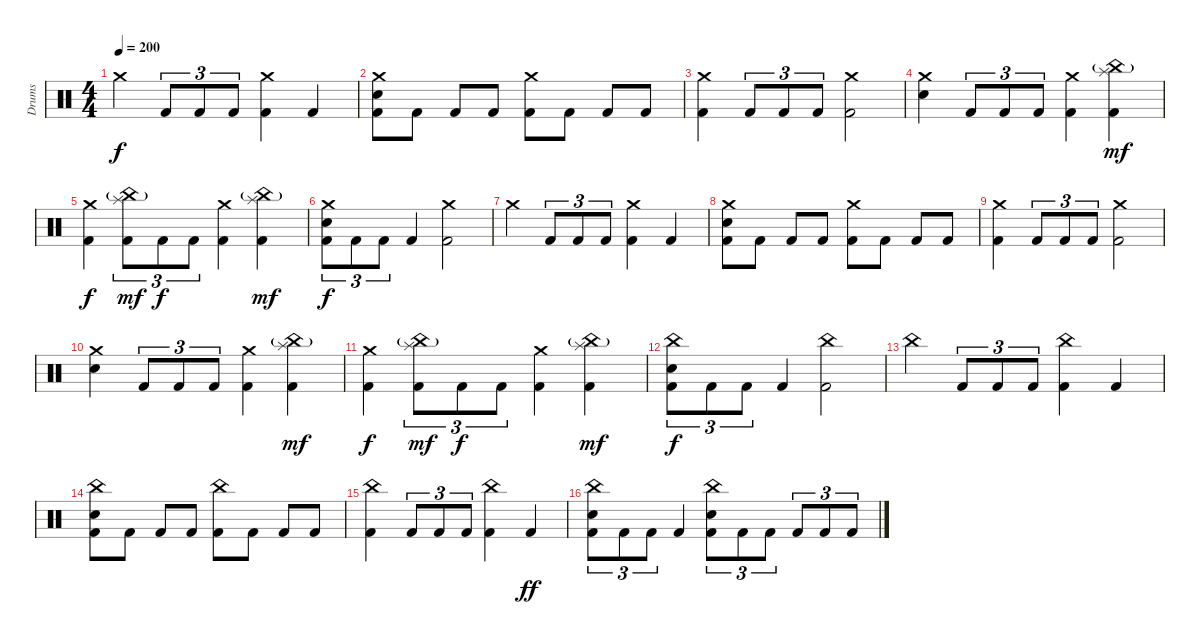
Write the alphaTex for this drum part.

\track ("Drums" "Drums") {instrument percussion}
\staff {score}
\articulation defaults
\ts (4 4)
\tempo 200
\clef neutral
\ks c "Crash medium (hit)".4{dy f} "Kick (hit) 2".8{tu (3 2)} "Kick (hit) 2".8{tu (3 2)} "Kick (hit) 2".8{tu (3 2)}
("Crash medium (hit)" "Kick (hit) 2").4 "Kick (hit) 2".4 |
("Crash medium (hit)" "Kick (hit) 2" "Electric Snare (hit)").8 "Kick (hit) 2".8 "Kick (hit) 2".8 "Kick (hit) 2".8 ("Crash medium (hit)" "Kick (hit) 2").8 "Kick (hit) 2".8 "Kick (hit) 2".8 "Kick (hit) 2".8 |
("Crash medium (hit)" "Kick (hit) 2").4 "Kick (hit) 2".8{tu (3 2)} "Kick (hit) 2".8{tu (3 2)} "Kick (hit) 2".8{tu (3 2)} ("Crash medium (hit)" "Kick (hit) 2").2 |
("Crash medium (hit)" "Electric Snare (hit)").4 "Kick (hit) 2".8{tu (3 2)} "Kick (hit) 2".8{tu (3 2)} "Kick (hit) 2".8{tu (3 2)} ("Crash medium (hit)" "Kick (hit) 2").4 ("Splash (hit)" "China (hit)"{g} "Kick (hit) 2").4{dy mf} |
("Crash medium (hit)" "Kick (hit) 2").4{dy f} ("Splash (hit)" "China (hit)"{g} "Kick (hit) 2").8{tu (3 2) dy mf} "Kick (hit) 2".8{tu (3 2) dy f} "Kick (hit) 2".8{tu (3 2)} ("Crash medium (hit)" "Kick (hit) 2").4 ("Splash (hit)" "China (hit)"{g} "Kick (hit) 2").4{dy mf} |
("Crash medium (hit)" "Kick (hit) 2" "Electric Snare (hit)").8{tu (3 2) dy f} "Kick (hit) 2".8{tu (3 2)} "Kick (hit) 2".8{tu (3 2)} "Kick (hit) 2".4 ("Crash medium (hit)" "Kick (hit) 2").2 |
"Crash medium (hit)".4 "Kick (hit) 2".8{tu (3 2)} "Kick (hit) 2".8{tu (3 2)} "Kick (hit) 2".8{tu (3 2)} ("Crash medium (hit)" "Kick (hit) 2").4 "Kick (hit) 2".4 |
("Crash medium (hit)" "Kick (hit) 2" "Electric Snare (hit)").8 "Kick (hit) 2".8 "Kick (hit) 2".8 "Kick (hit) 2".8 ("Crash medium (hit)" "Kick (hit) 2").8 "Kick (hit) 2".8 "Kick (hit) 2".8 "Kick (hit) 2".8 |
("Crash medium (hit)" "Kick (hit) 2").4 "Kick (hit) 2".8{tu (3 2)} "Kick (hit) 2".8{tu (3 2)} "Kick (hit) 2".8{tu (3 2)} ("Crash medium (hit)" "Kick (hit) 2").2 |
("Crash medium (hit)" "Electric Snare (hit)").4 "Kick (hit) 2".8{tu (3 2)} "Kick (hit) 2".8{tu (3 2)} "Kick (hit) 2".8{tu (3 2)} ("Crash medium (hit)" "Kick (hit) 2").4 ("Splash (hit)" "China (hit)"{g} "Kick (hit) 2").4{dy mf} |
("Crash medium (hit)" "Kick (hit) 2").4{dy f} ("Splash (hit)" "China (hit)"{g} "Kick (hit) 2").8{tu (3 2) dy mf} "Kick (hit) 2".8{tu (3 2) dy f} "Kick (hit) 2".8{tu (3 2)} ("Crash medium (hit)" "Kick (hit) 2").4 ("Splash (hit)" "China (hit)"{g} "Kick (hit) 2").4{dy mf} |
("China (hit)" "Kick (hit) 2" "Electric Snare (hit)").8{tu (3 2) dy f} "Kick (hit) 2".8{tu (3 2)} "Kick (hit) 2".8{tu (3 2)} "Kick (hit) 2".4 ("China (hit)" "Kick (hit) 2").2 |
"China (hit)".4 "Kick (hit) 2".8{tu (3 2)} "Kick (hit) 2".8{tu (3 2)} "Kick (hit) 2".8{tu (3 2)} ("China (hit)" "Kick (hit) 2").4 "Kick (hit) 2".4 |
("China (hit)" "Kick (hit) 2" "Electric Snare (hit)").8 "Kick (hit) 2".8 "Kick (hit) 2".8 "Kick (hit) 2".8 ("China (hit)" "Kick (hit) 2").8 "Kick (hit) 2".8 "Kick (hit) 2".8 "Kick (hit) 2".8 |
("China (hit)" "Kick (hit) 2").4 "Kick (hit) 2".8{tu (3 2)} "Kick (hit) 2".8{tu (3 2)} "Kick (hit) 2".8{tu (3 2)} ("China (hit)" "Kick (hit) 2").4 "Kick (hit) 2".4{dy ff} |
("China (hit)" "Kick (hit) 2" "Electric Snare (hit)").8{tu (3 2)} "Kick (hit) 2".8{tu (3 2)} "Kick (hit) 2".8{tu (3 2)} "Kick (hit) 2".4 ("China (hit)" "Kick (hit) 2" "Electric Snare (hit)").8{tu (3 2)} "Kick (hit) 2".8{tu (3 2)} "Kick (hit) 2".8{tu (3 2)} "Kick (hit) 2".8{tu (3 2)} "Kick (hit) 2".8{tu (3 2)} "Kick (hit) 2".8{tu (3 2)}
